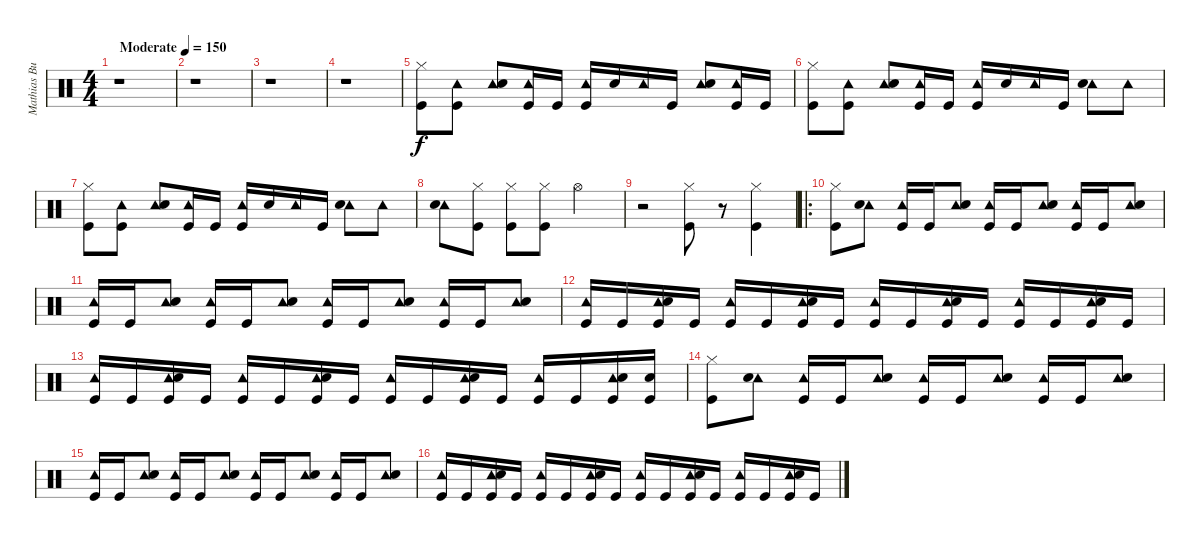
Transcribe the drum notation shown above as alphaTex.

\track ("Mathias Burchardt - batterie" "Mathias Bu") {instrument percussion}
\staff {score}
\articulation defaults
\ts (4 4)
\tempo (150 "Moderate")
\clef neutral
\ks c
r.1{dy f} |
r.1 |
r.1 |
r.1 |
("Hi-Hat (closed)" "Kick (hit)").8 ("Tambourine (hit)" "Kick (hit)").8 ("Tambourine (hit)" "Snare (hit) 2").8 ("Tambourine (hit)" "Kick (hit)").16 "Kick (hit)".16 ("Tambourine (hit)" "Kick (hit)").16 "Snare (hit) 2".16 "Tambourine (hit)".16 "Kick (hit)".16 ("Tambourine (hit)" "Snare (hit) 2").8 ("Tambourine (hit)" "Kick (hit)").16 "Kick (hit)".16 |
("Hi-Hat (closed)" "Kick (hit)").8 ("Tambourine (hit)" "Kick (hit)").8 ("Tambourine (hit)" "Snare (hit) 2").8 ("Tambourine (hit)" "Kick (hit)").16 "Kick (hit)".16 ("Tambourine (hit)" "Kick (hit)").16 "Snare (hit) 2".16 "Tambourine (hit)".16 "Kick (hit)".16 ("Tambourine (hit)" "Snare (hit) 2").8 "Tambourine (hit)".8 |
("Hi-Hat (closed)" "Kick (hit)").8 ("Tambourine (hit)" "Kick (hit)").8 ("Tambourine (hit)" "Snare (hit) 2").8 ("Tambourine (hit)" "Kick (hit)").16 "Kick (hit)".16 ("Tambourine (hit)" "Kick (hit)").16 "Snare (hit) 2".16 "Tambourine (hit)".16 "Kick (hit)".16 ("Tambourine (hit)" "Snare (hit) 2").8 "Tambourine (hit)".8 |
("Tambourine (hit)" "Snare (hit) 2").8 ("Hi-Hat (closed)" "Kick (hit)").8 ("Hi-Hat (closed)" "Kick (hit)").8 ("Hi-Hat (closed)" "Kick (hit)").8 "Hi-Hat (open)".2 |
r.2 ("Hi-Hat (closed)" "Kick (hit)").8 r.8 ("Hi-Hat (closed)" "Kick (hit)").4 |
\ro
("Hi-Hat (closed)" "Kick (hit)").8 ("Tambourine (hit)" "Snare (hit) 2").8 ("Tambourine (hit)" "Kick (hit)").16 "Kick (hit)".16 ("Tambourine (hit)" "Snare (hit) 2").8 ("Tambourine (hit)" "Kick (hit)").16 "Kick (hit)".16 ("Tambourine (hit)" "Snare (hit) 2").8 ("Tambourine (hit)" "Kick (hit)").16 "Kick (hit)".16 ("Tambourine (hit)" "Snare (hit) 2").8 |
("Tambourine (hit)" "Kick (hit)").16 "Kick (hit)".16 ("Tambourine (hit)" "Snare (hit) 2").8 ("Tambourine (hit)" "Kick (hit)").16 "Kick (hit)".16 ("Tambourine (hit)" "Snare (hit) 2").8 ("Tambourine (hit)" "Kick (hit)").16 "Kick (hit)".16 ("Tambourine (hit)" "Snare (hit) 2").8 ("Tambourine (hit)" "Kick (hit)").16 "Kick (hit)".16 ("Tambourine (hit)" "Snare (hit) 2").8 |
("Tambourine (hit)" "Kick (hit)").16 "Kick (hit)".16 ("Tambourine (hit)" "Snare (hit) 2" "Kick (hit)").16 "Kick (hit)".16 ("Tambourine (hit)" "Kick (hit)").16 "Kick (hit)".16 ("Tambourine (hit)" "Snare (hit) 2" "Kick (hit)").16 "Kick (hit)".16 ("Tambourine (hit)" "Kick (hit)").16 "Kick (hit)".16 ("Tambourine (hit)" "Snare (hit) 2" "Kick (hit)").16 "Kick (hit)".16 ("Tambourine (hit)" "Kick (hit)").16 "Kick (hit)".16 ("Tambourine (hit)" "Snare (hit) 2" "Kick (hit)").16 "Kick (hit)".16 |
("Tambourine (hit)" "Kick (hit)").16 "Kick (hit)".16 ("Tambourine (hit)" "Snare (hit) 2" "Kick (hit)").16 "Kick (hit)".16 ("Tambourine (hit)" "Kick (hit)").16 "Kick (hit)".16 ("Tambourine (hit)" "Snare (hit) 2" "Kick (hit)").16 "Kick (hit)".16 ("Tambourine (hit)" "Kick (hit)").16 "Kick (hit)".16 ("Tambourine (hit)" "Snare (hit) 2" "Kick (hit)").16 "Kick (hit)".16 ("Tambourine (hit)" "Kick (hit)").16 "Kick (hit)".16 ("Tambourine (hit)" "Snare (hit) 2" "Kick (hit)").16 ("Snare (hit) 2" "Kick (hit)").16 |
("Hi-Hat (closed)" "Kick (hit)").8 ("Tambourine (hit)" "Snare (hit) 2").8 ("Tambourine (hit)" "Kick (hit)").16 "Kick (hit)".16 ("Tambourine (hit)" "Snare (hit) 2").8 ("Tambourine (hit)" "Kick (hit)").16 "Kick (hit)".16 ("Tambourine (hit)" "Snare (hit) 2").8 ("Tambourine (hit)" "Kick (hit)").16 "Kick (hit)".16 ("Tambourine (hit)" "Snare (hit) 2").8 |
("Tambourine (hit)" "Kick (hit)").16 "Kick (hit)".16 ("Tambourine (hit)" "Snare (hit) 2").8 ("Tambourine (hit)" "Kick (hit)").16 "Kick (hit)".16 ("Tambourine (hit)" "Snare (hit) 2").8 ("Tambourine (hit)" "Kick (hit)").16 "Kick (hit)".16 ("Tambourine (hit)" "Snare (hit) 2").8 ("Tambourine (hit)" "Kick (hit)").16 "Kick (hit)".16 ("Tambourine (hit)" "Snare (hit) 2").8 |
("Tambourine (hit)" "Kick (hit)").16 "Kick (hit)".16 ("Tambourine (hit)" "Snare (hit) 2" "Kick (hit)").16 "Kick (hit)".16 ("Tambourine (hit)" "Kick (hit)").16 "Kick (hit)".16 ("Tambourine (hit)" "Snare (hit) 2" "Kick (hit)").16 "Kick (hit)".16 ("Tambourine (hit)" "Kick (hit)").16 "Kick (hit)".16 ("Tambourine (hit)" "Snare (hit) 2" "Kick (hit)").16 "Kick (hit)".16 ("Tambourine (hit)" "Kick (hit)").16 "Kick (hit)".16 ("Tambourine (hit)" "Snare (hit) 2" "Kick (hit)").16 "Kick (hit)".16
